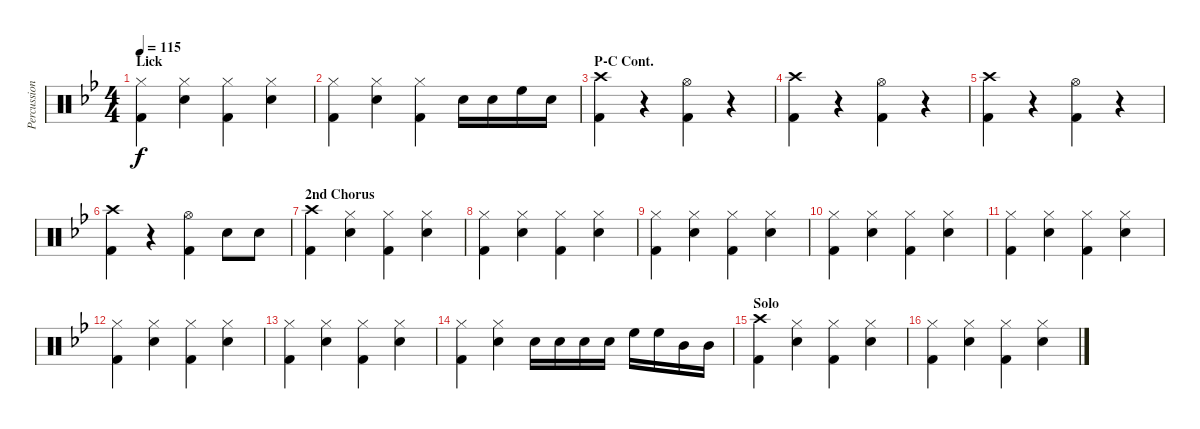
\track ("Percussion" "Percussion") {instrument percussion}
\staff {score}
\articulation defaults
\ts (4 4)
\section ("" "Lick")
\tempo 115
\clef neutral
\ks bb
("Hi-Hat (closed)" "Kick (hit) 2").4{dy f} ("Hi-Hat (closed)" "Snare (hit) 2").4 ("Hi-Hat (closed)" "Kick (hit) 2").4 ("Hi-Hat (closed)" "Snare (hit) 2").4 |
("Hi-Hat (closed)" "Kick (hit) 2").4 ("Hi-Hat (closed)" "Snare (hit) 2").4 ("Hi-Hat (closed)" "Kick (hit) 2").4 "Snare (hit) 2".16 "Snare (hit) 2".16 "High Floor Tom (hit)".16 "Snare (hit) 2".16 |
\section ("" "P-C Cont.")
("Crash high (hit)" "Kick (hit) 2").4 r.4 ("Hi-Hat (open)" "Kick (hit) 2").4 r.4 |
("Crash high (hit)" "Kick (hit) 2").4 r.4 ("Hi-Hat (open)" "Kick (hit) 2").4 r.4 |
("Crash high (hit)" "Kick (hit) 2").4 r.4 ("Hi-Hat (open)" "Kick (hit) 2").4 r.4 |
("Crash high (hit)" "Kick (hit) 2").4 r.4 ("Hi-Hat (open)" "Kick (hit) 2").4 "Snare (hit) 2".8 "Snare (hit) 2".8 |
\section ("" "2nd Chorus")
("Crash high (hit)" "Kick (hit) 2").4 ("Hi-Hat (closed)" "Snare (hit) 2").4 ("Hi-Hat (closed)" "Kick (hit) 2").4 ("Hi-Hat (closed)" "Snare (hit) 2").4 |
("Hi-Hat (closed)" "Kick (hit) 2").4 ("Hi-Hat (closed)" "Snare (hit) 2").4 ("Hi-Hat (closed)" "Kick (hit) 2").4 ("Hi-Hat (closed)" "Snare (hit) 2").4 |
("Hi-Hat (closed)" "Kick (hit) 2").4 ("Hi-Hat (closed)" "Snare (hit) 2").4 ("Hi-Hat (closed)" "Kick (hit) 2").4 ("Hi-Hat (closed)" "Snare (hit) 2").4 |
("Hi-Hat (closed)" "Kick (hit) 2").4 ("Hi-Hat (closed)" "Snare (hit) 2").4 ("Hi-Hat (closed)" "Kick (hit) 2").4 ("Hi-Hat (closed)" "Snare (hit) 2").4 |
("Hi-Hat (closed)" "Kick (hit) 2").4 ("Hi-Hat (closed)" "Snare (hit) 2").4 ("Hi-Hat (closed)" "Kick (hit) 2").4 ("Hi-Hat (closed)" "Snare (hit) 2").4 |
("Hi-Hat (closed)" "Kick (hit) 2").4 ("Hi-Hat (closed)" "Snare (hit) 2").4 ("Hi-Hat (closed)" "Kick (hit) 2").4 ("Hi-Hat (closed)" "Snare (hit) 2").4 |
("Hi-Hat (closed)" "Kick (hit) 2").4 ("Hi-Hat (closed)" "Snare (hit) 2").4 ("Hi-Hat (closed)" "Kick (hit) 2").4 ("Hi-Hat (closed)" "Snare (hit) 2").4 |
("Hi-Hat (closed)" "Kick (hit) 2").4 ("Hi-Hat (closed)" "Snare (hit) 2").4 "Snare (hit) 2".16 "Snare (hit) 2".16 "Snare (hit) 2".16 "Snare (hit) 2".16 "High Floor Tom (hit)".16 "High Floor Tom (hit)".16 "Mid Tom (hit)".16 "Mid Tom (hit)".16 |
\section ("" "Solo")
("Crash high (hit)" "Kick (hit) 2").4 ("Hi-Hat (closed)" "Snare (hit) 2").4 ("Hi-Hat (closed)" "Kick (hit) 2").4 ("Hi-Hat (closed)" "Snare (hit) 2").4 |
("Hi-Hat (closed)" "Kick (hit) 2").4 ("Hi-Hat (closed)" "Snare (hit) 2").4 ("Hi-Hat (closed)" "Kick (hit) 2").4 ("Hi-Hat (closed)" "Snare (hit) 2").4
